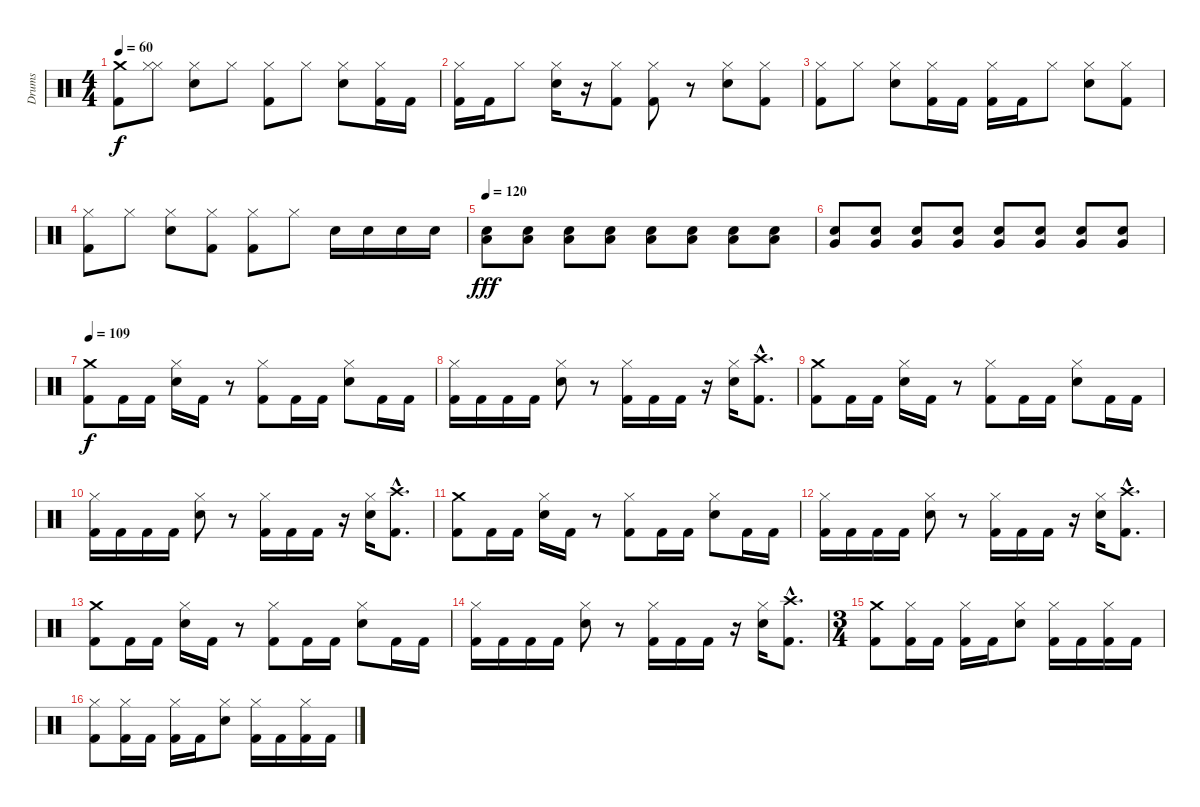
\track ("Drums" "Drums") {instrument percussion}
\staff {score}
\articulation defaults
\ts (4 4)
\tempo 60
\clef neutral
\ks c
("Crash medium (hit)" "Kick (hit) 2").8{dy f} ("Hi-Hat (closed)" "Hi-Hat (closed)").8 ("Hi-Hat (closed)" "Snare (hit) 2").8 "Hi-Hat (closed)".8 ("Hi-Hat (closed)" "Kick (hit) 2").8 "Hi-Hat (closed)".8 ("Hi-Hat (closed)" "Snare (hit) 2").8 ("Hi-Hat (closed)" "Kick (hit) 2").16 "Kick (hit) 2".16 |
("Hi-Hat (closed)" "Kick (hit) 2").16 "Kick (hit) 2".16 "Hi-Hat (closed)".8 ("Hi-Hat (closed)" "Snare (hit) 2").16 r.16 ("Hi-Hat (closed)" "Kick (hit) 2").8 ("Hi-Hat (closed)" "Kick (hit) 2").8 r.8 ("Hi-Hat (closed)" "Snare (hit) 2").8 ("Hi-Hat (closed)" "Kick (hit) 2").8 |
("Hi-Hat (closed)" "Kick (hit) 2").8 "Hi-Hat (closed)".8 ("Hi-Hat (closed)" "Snare (hit) 2").8 ("Hi-Hat (closed)" "Kick (hit) 2").16 "Kick (hit) 2".16 ("Hi-Hat (closed)" "Kick (hit) 2").16 "Kick (hit) 2".16 "Hi-Hat (closed)".8 ("Hi-Hat (closed)" "Snare (hit) 2").8 ("Hi-Hat (closed)" "Kick (hit) 2").8 |
("Hi-Hat (closed)" "Kick (hit) 2").8 "Hi-Hat (closed)".8 ("Hi-Hat (closed)" "Snare (hit) 2").8 ("Hi-Hat (closed)" "Kick (hit) 2").8 ("Hi-Hat (closed)" "Kick (hit) 2").8 "Hi-Hat (closed)".8 "Snare (hit) 2".16 "Snare (hit) 2".16 "Snare (hit) 2".16 "Snare (hit) 2".16 |
\tempo 120
("Snare (hit) 2" "Low Tom (hit)").8{dy fff} ("Snare (hit) 2" "Low Tom (hit)").8 ("Snare (hit) 2" "Low Tom (hit)").8 ("Snare (hit) 2" "Low Tom (hit)").8 ("Snare (hit) 2" "Low Tom (hit)").8 ("Snare (hit) 2" "Low Tom (hit)").8 ("Snare (hit) 2" "Low Tom (hit)").8 ("Snare (hit) 2" "Low Tom (hit)").8 |
("Snare (hit) 2" "Very Low Tom (hit)").8 ("Snare (hit) 2" "Very Low Tom (hit)").8 ("Snare (hit) 2" "Very Low Tom (hit)").8 ("Snare (hit) 2" "Very Low Tom (hit)").8 ("Snare (hit) 2" "Very Low Tom (hit)").8 ("Snare (hit) 2" "Very Low Tom (hit)").8 ("Snare (hit) 2" "Very Low Tom (hit)").8 ("Snare (hit) 2" "Very Low Tom (hit)").8 |
\tempo 109
("Crash medium (hit)" "Kick (hit) 2").8{dy f} "Kick (hit) 2".16 "Kick (hit) 2".16 ("Hi-Hat (closed)" "Snare (hit) 2").16 "Kick (hit) 2".16 r.8 ("Hi-Hat (closed)" "Kick (hit) 2").8 "Kick (hit) 2".16 "Kick (hit) 2".16 ("Hi-Hat (closed)" "Snare (hit) 2").8 "Kick (hit) 2".16 "Kick (hit) 2".16 |
("Hi-Hat (closed)" "Kick (hit) 2").16 "Kick (hit) 2".16 "Kick (hit) 2".16 "Kick (hit) 2".16 ("Hi-Hat (closed)" "Snare (hit) 2").8 r.8 ("Hi-Hat (closed)" "Kick (hit) 2").16 "Kick (hit) 2".16 "Kick (hit) 2".16 r.16 ("Hi-Hat (closed)" "Snare (hit) 2").16 ("Crash high (hit)"{hac} "Kick (hit) 2"{hac}).8{d} |
("Crash medium (hit)" "Kick (hit) 2").8 "Kick (hit) 2".16 "Kick (hit) 2".16 ("Hi-Hat (closed)" "Snare (hit) 2").16 "Kick (hit) 2".16 r.8 ("Hi-Hat (closed)" "Kick (hit) 2").8 "Kick (hit) 2".16 "Kick (hit) 2".16 ("Hi-Hat (closed)" "Snare (hit) 2").8 "Kick (hit) 2".16 "Kick (hit) 2".16 |
("Hi-Hat (closed)" "Kick (hit) 2").16 "Kick (hit) 2".16 "Kick (hit) 2".16 "Kick (hit) 2".16 ("Hi-Hat (closed)" "Snare (hit) 2").8 r.8 ("Hi-Hat (closed)" "Kick (hit) 2").16 "Kick (hit) 2".16 "Kick (hit) 2".16 r.16 ("Hi-Hat (closed)" "Snare (hit) 2").16 ("Crash high (hit)"{hac} "Kick (hit) 2"{hac}).8{d} |
("Crash medium (hit)" "Kick (hit) 2").8 "Kick (hit) 2".16 "Kick (hit) 2".16 ("Hi-Hat (closed)" "Snare (hit) 2").16 "Kick (hit) 2".16 r.8 ("Hi-Hat (closed)" "Kick (hit) 2").8 "Kick (hit) 2".16 "Kick (hit) 2".16 ("Hi-Hat (closed)" "Snare (hit) 2").8 "Kick (hit) 2".16 "Kick (hit) 2".16 |
("Hi-Hat (closed)" "Kick (hit) 2").16 "Kick (hit) 2".16 "Kick (hit) 2".16 "Kick (hit) 2".16 ("Hi-Hat (closed)" "Snare (hit) 2").8 r.8 ("Hi-Hat (closed)" "Kick (hit) 2").16 "Kick (hit) 2".16 "Kick (hit) 2".16 r.16 ("Hi-Hat (closed)" "Snare (hit) 2").16 ("Crash high (hit)"{hac} "Kick (hit) 2"{hac}).8{d} |
("Crash medium (hit)" "Kick (hit) 2").8 "Kick (hit) 2".16 "Kick (hit) 2".16 ("Hi-Hat (closed)" "Snare (hit) 2").16 "Kick (hit) 2".16 r.8 ("Hi-Hat (closed)" "Kick (hit) 2").8 "Kick (hit) 2".16 "Kick (hit) 2".16 ("Hi-Hat (closed)" "Snare (hit) 2").8 "Kick (hit) 2".16 "Kick (hit) 2".16 |
("Hi-Hat (closed)" "Kick (hit) 2").16 "Kick (hit) 2".16 "Kick (hit) 2".16 "Kick (hit) 2".16 ("Hi-Hat (closed)" "Snare (hit) 2").8 r.8 ("Hi-Hat (closed)" "Kick (hit) 2").16 "Kick (hit) 2".16 "Kick (hit) 2".16 r.16 ("Hi-Hat (closed)" "Snare (hit) 2").16 ("Crash high (hit)"{hac} "Kick (hit) 2"{hac}).8{d} |
\ts (3 4)
("Crash medium (hit)" "Kick (hit) 2").8 ("Hi-Hat (closed)" "Kick (hit) 2").16 "Kick (hit) 2".16 ("Hi-Hat (closed)" "Kick (hit) 2").16 "Kick (hit) 2".16 ("Hi-Hat (closed)" "Snare (hit) 2").8 ("Hi-Hat (closed)" "Kick (hit) 2").16 "Kick (hit) 2".16 ("Hi-Hat (closed)" "Kick (hit) 2").16 "Kick (hit) 2".16 |
("Hi-Hat (closed)" "Kick (hit) 2").8 ("Hi-Hat (closed)" "Kick (hit) 2").16 "Kick (hit) 2".16 ("Hi-Hat (closed)" "Kick (hit) 2").16 "Kick (hit) 2".16 ("Hi-Hat (closed)" "Snare (hit) 2").8 ("Hi-Hat (closed)" "Kick (hit) 2").16 "Kick (hit) 2".16 ("Hi-Hat (closed)" "Kick (hit) 2").16 "Kick (hit) 2".16
